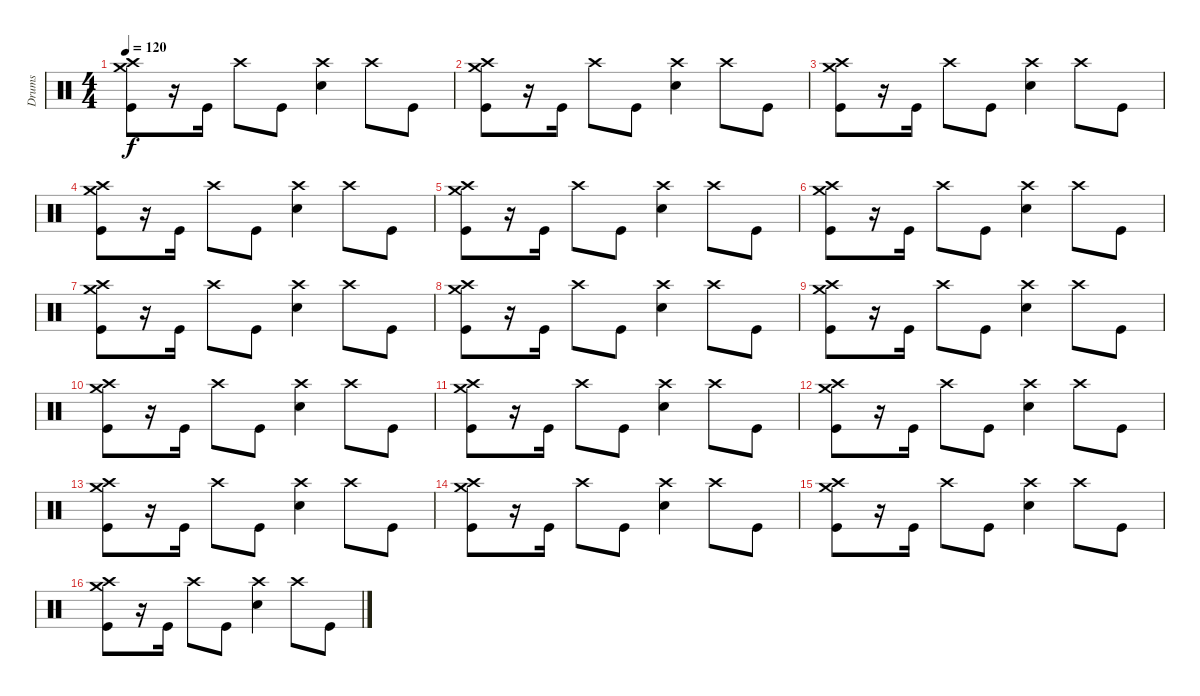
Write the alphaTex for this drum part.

\track ("Drums" "Drums") {instrument percussion}
\staff {score}
\articulation defaults
\ts (4 4)
\tempo 120
\clef neutral
\ks c
("Crash high (hit)" "Crash medium (hit)" "Kick (hit)").8{dy f} r.16 "Kick (hit)".16 "Crash high (hit)".8 "Kick (hit)".8 ("Crash high (hit)" "Snare (hit) 2").4 "Crash high (hit)".8 "Kick (hit)".8 |
("Crash high (hit)" "Crash medium (hit)" "Kick (hit)").8 r.16 "Kick (hit)".16 "Crash high (hit)".8 "Kick (hit)".8 ("Crash high (hit)" "Snare (hit) 2").4 "Crash high (hit)".8 "Kick (hit)".8 |
("Crash high (hit)" "Crash medium (hit)" "Kick (hit)").8 r.16 "Kick (hit)".16 "Crash high (hit)".8 "Kick (hit)".8 ("Crash high (hit)" "Snare (hit) 2").4 "Crash high (hit)".8 "Kick (hit)".8 |
("Crash high (hit)" "Crash medium (hit)" "Kick (hit)").8 r.16 "Kick (hit)".16 "Crash high (hit)".8 "Kick (hit)".8 ("Crash high (hit)" "Snare (hit) 2").4 "Crash high (hit)".8 "Kick (hit)".8 |
("Crash high (hit)" "Crash medium (hit)" "Kick (hit)").8 r.16 "Kick (hit)".16 "Crash high (hit)".8 "Kick (hit)".8 ("Crash high (hit)" "Snare (hit) 2").4 "Crash high (hit)".8 "Kick (hit)".8 |
("Crash high (hit)" "Crash medium (hit)" "Kick (hit)").8 r.16 "Kick (hit)".16 "Crash high (hit)".8 "Kick (hit)".8 ("Crash high (hit)" "Snare (hit) 2").4 "Crash high (hit)".8 "Kick (hit)".8 |
("Crash high (hit)" "Crash medium (hit)" "Kick (hit)").8 r.16 "Kick (hit)".16 "Crash high (hit)".8 "Kick (hit)".8 ("Crash high (hit)" "Snare (hit) 2").4 "Crash high (hit)".8 "Kick (hit)".8 |
("Crash high (hit)" "Crash medium (hit)" "Kick (hit)").8 r.16 "Kick (hit)".16 "Crash high (hit)".8 "Kick (hit)".8 ("Crash high (hit)" "Snare (hit) 2").4 "Crash high (hit)".8 "Kick (hit)".8 |
("Crash high (hit)" "Crash medium (hit)" "Kick (hit)").8 r.16 "Kick (hit)".16 "Crash high (hit)".8 "Kick (hit)".8 ("Crash high (hit)" "Snare (hit) 2").4 "Crash high (hit)".8 "Kick (hit)".8 |
("Crash high (hit)" "Crash medium (hit)" "Kick (hit)").8 r.16 "Kick (hit)".16 "Crash high (hit)".8 "Kick (hit)".8 ("Crash high (hit)" "Snare (hit) 2").4 "Crash high (hit)".8 "Kick (hit)".8 |
("Crash high (hit)" "Crash medium (hit)" "Kick (hit)").8 r.16 "Kick (hit)".16 "Crash high (hit)".8 "Kick (hit)".8 ("Crash high (hit)" "Snare (hit) 2").4 "Crash high (hit)".8 "Kick (hit)".8 |
("Crash high (hit)" "Crash medium (hit)" "Kick (hit)").8 r.16 "Kick (hit)".16 "Crash high (hit)".8 "Kick (hit)".8 ("Crash high (hit)" "Snare (hit) 2").4 "Crash high (hit)".8 "Kick (hit)".8 |
("Crash high (hit)" "Crash medium (hit)" "Kick (hit)").8 r.16 "Kick (hit)".16 "Crash high (hit)".8 "Kick (hit)".8 ("Crash high (hit)" "Snare (hit) 2").4 "Crash high (hit)".8 "Kick (hit)".8 |
("Crash high (hit)" "Crash medium (hit)" "Kick (hit)").8 r.16 "Kick (hit)".16 "Crash high (hit)".8 "Kick (hit)".8 ("Crash high (hit)" "Snare (hit) 2").4 "Crash high (hit)".8 "Kick (hit)".8 |
("Crash high (hit)" "Crash medium (hit)" "Kick (hit)").8 r.16 "Kick (hit)".16 "Crash high (hit)".8 "Kick (hit)".8 ("Crash high (hit)" "Snare (hit) 2").4 "Crash high (hit)".8 "Kick (hit)".8 |
("Crash high (hit)" "Crash medium (hit)" "Kick (hit)").8 r.16 "Kick (hit)".16 "Crash high (hit)".8 "Kick (hit)".8 ("Crash high (hit)" "Snare (hit) 2").4 "Crash high (hit)".8 "Kick (hit)".8
